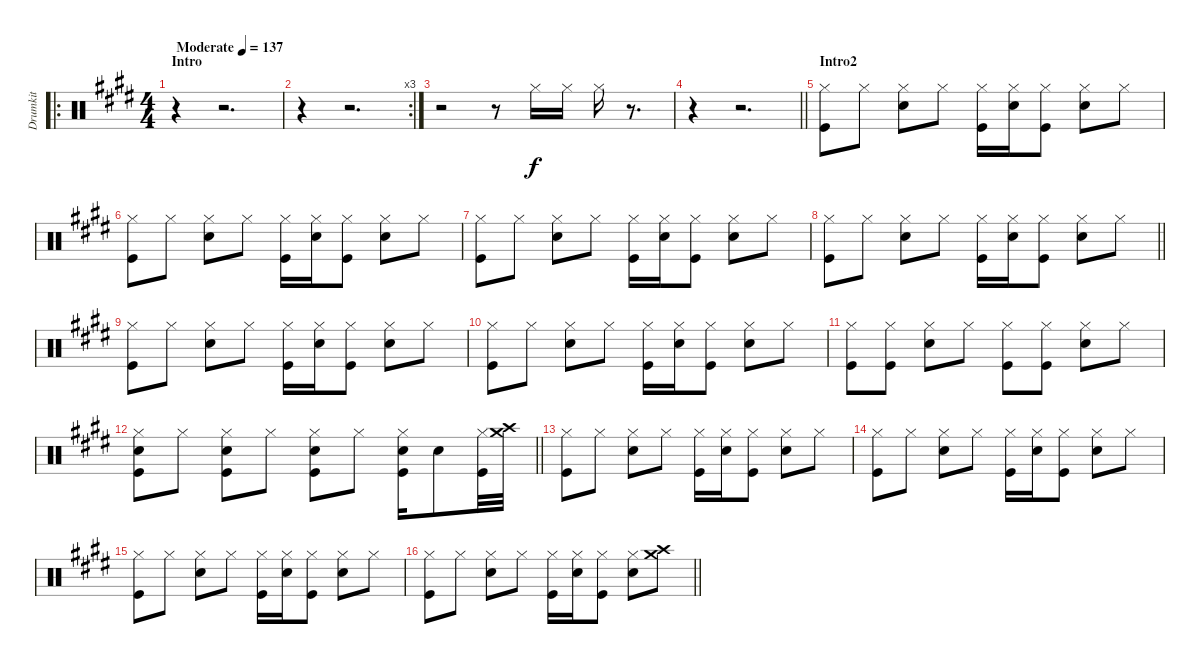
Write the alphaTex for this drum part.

\track ("Drumkit" "Drumkit") {instrument percussion}
\staff {score}
\articulation defaults
\ro
\ts (4 4)
\section ("" "Intro")
\tempo (137 "Moderate")
\clef neutral
\ks e
r.4{dy f} r.2{d} |
\rc 3
r.4 r.2{d} |
r.2 r.8 "Hi-Hat (closed)".16 "Hi-Hat (closed)".16 "Hi-Hat (closed)".16 r.8{d} |
\barLineRight lightlight
r.4 r.2{d} |
\section ("" "Intro2")
("Hi-Hat (closed)" "Kick (hit)").8 "Hi-Hat (closed)".8 ("Hi-Hat (closed)" "Snare (hit) 2").8 "Hi-Hat (closed)".8 ("Hi-Hat (closed)" "Kick (hit)").16 ("Hi-Hat (closed)" "Snare (hit) 2").16 ("Hi-Hat (closed)" "Kick (hit)").8 ("Hi-Hat (closed)" "Snare (hit) 2").8 "Hi-Hat (closed)".8 |
("Hi-Hat (closed)" "Kick (hit)").8 "Hi-Hat (closed)".8 ("Hi-Hat (closed)" "Snare (hit) 2").8 "Hi-Hat (closed)".8 ("Hi-Hat (closed)" "Kick (hit)").16 ("Hi-Hat (closed)" "Snare (hit) 2").16 ("Hi-Hat (closed)" "Kick (hit)").8 ("Hi-Hat (closed)" "Snare (hit) 2").8 "Hi-Hat (closed)".8 |
("Hi-Hat (closed)" "Kick (hit)").8 "Hi-Hat (closed)".8 ("Hi-Hat (closed)" "Snare (hit) 2").8 "Hi-Hat (closed)".8 ("Hi-Hat (closed)" "Kick (hit)").16 ("Hi-Hat (closed)" "Snare (hit) 2").16 ("Hi-Hat (closed)" "Kick (hit)").8 ("Hi-Hat (closed)" "Snare (hit) 2").8 "Hi-Hat (closed)".8 |
\barLineRight lightlight
("Hi-Hat (closed)" "Kick (hit)").8 "Hi-Hat (closed)".8 ("Hi-Hat (closed)" "Snare (hit) 2").8 "Hi-Hat (closed)".8 ("Hi-Hat (closed)" "Kick (hit)").16 ("Hi-Hat (closed)" "Snare (hit) 2").16 ("Hi-Hat (closed)" "Kick (hit)").8 ("Hi-Hat (closed)" "Snare (hit) 2").8 "Hi-Hat (closed)".8 |
("Hi-Hat (closed)" "Kick (hit)").8 "Hi-Hat (closed)".8 ("Hi-Hat (closed)" "Snare (hit) 2").8 "Hi-Hat (closed)".8 ("Hi-Hat (closed)" "Kick (hit)").16 ("Hi-Hat (closed)" "Snare (hit) 2").16 ("Hi-Hat (closed)" "Kick (hit)").8 ("Hi-Hat (closed)" "Snare (hit) 2").8 "Hi-Hat (closed)".8 |
("Hi-Hat (closed)" "Kick (hit)").8 "Hi-Hat (closed)".8 ("Hi-Hat (closed)" "Snare (hit) 2").8 "Hi-Hat (closed)".8 ("Hi-Hat (closed)" "Kick (hit)").16 ("Hi-Hat (closed)" "Snare (hit) 2").16 ("Hi-Hat (closed)" "Kick (hit)").8 ("Hi-Hat (closed)" "Snare (hit) 2").8 "Hi-Hat (closed)".8 |
("Hi-Hat (closed)" "Kick (hit)").8 ("Hi-Hat (closed)" "Kick (hit)").8 ("Hi-Hat (closed)" "Snare (hit) 2").8 "Hi-Hat (closed)".8 ("Hi-Hat (closed)" "Kick (hit)").8 ("Hi-Hat (closed)" "Kick (hit)").8 ("Hi-Hat (closed)" "Snare (hit) 2").8 "Hi-Hat (closed)".8 |
\barLineRight lightlight
("Hi-Hat (closed)" "Kick (hit)" "Snare (hit) 2").8 "Hi-Hat (closed)".8 ("Hi-Hat (closed)" "Snare (hit) 2" "Kick (hit)").8 "Hi-Hat (closed)".8 ("Hi-Hat (closed)" "Kick (hit)" "Snare (hit) 2").8 "Hi-Hat (closed)".8 ("Hi-Hat (closed)" "Kick (hit)" "Snare (hit) 2").16 "Snare (hit) 2".8 ("Kick (hit)" "Hi-Hat (closed)").32 ("Crash high (hit)" "Crash medium (hit)").32 |
("Hi-Hat (closed)" "Kick (hit)").8 "Hi-Hat (closed)".8 ("Hi-Hat (closed)" "Snare (hit) 2").8 "Hi-Hat (closed)".8 ("Hi-Hat (closed)" "Kick (hit)").16 ("Hi-Hat (closed)" "Snare (hit) 2").16 ("Hi-Hat (closed)" "Kick (hit)").8 ("Hi-Hat (closed)" "Snare (hit) 2").8 "Hi-Hat (closed)".8 |
("Hi-Hat (closed)" "Kick (hit)").8 "Hi-Hat (closed)".8 ("Hi-Hat (closed)" "Snare (hit) 2").8 "Hi-Hat (closed)".8 ("Hi-Hat (closed)" "Kick (hit)").16 ("Hi-Hat (closed)" "Snare (hit) 2").16 ("Hi-Hat (closed)" "Kick (hit)").8 ("Hi-Hat (closed)" "Snare (hit) 2").8 "Hi-Hat (closed)".8 |
("Hi-Hat (closed)" "Kick (hit)").8 "Hi-Hat (closed)".8 ("Hi-Hat (closed)" "Snare (hit) 2").8 "Hi-Hat (closed)".8 ("Hi-Hat (closed)" "Kick (hit)").16 ("Hi-Hat (closed)" "Snare (hit) 2").16 ("Hi-Hat (closed)" "Kick (hit)").8 ("Hi-Hat (closed)" "Snare (hit) 2").8 "Hi-Hat (closed)".8 |
\barLineRight lightlight
("Hi-Hat (closed)" "Kick (hit)").8 "Hi-Hat (closed)".8 ("Hi-Hat (closed)" "Snare (hit) 2").8 "Hi-Hat (closed)".8 ("Hi-Hat (closed)" "Kick (hit)").16 ("Hi-Hat (closed)" "Snare (hit) 2").16 ("Hi-Hat (closed)" "Kick (hit)").8 ("Hi-Hat (closed)" "Snare (hit) 2").8 ("Crash medium (hit)" "Crash high (hit)").8
